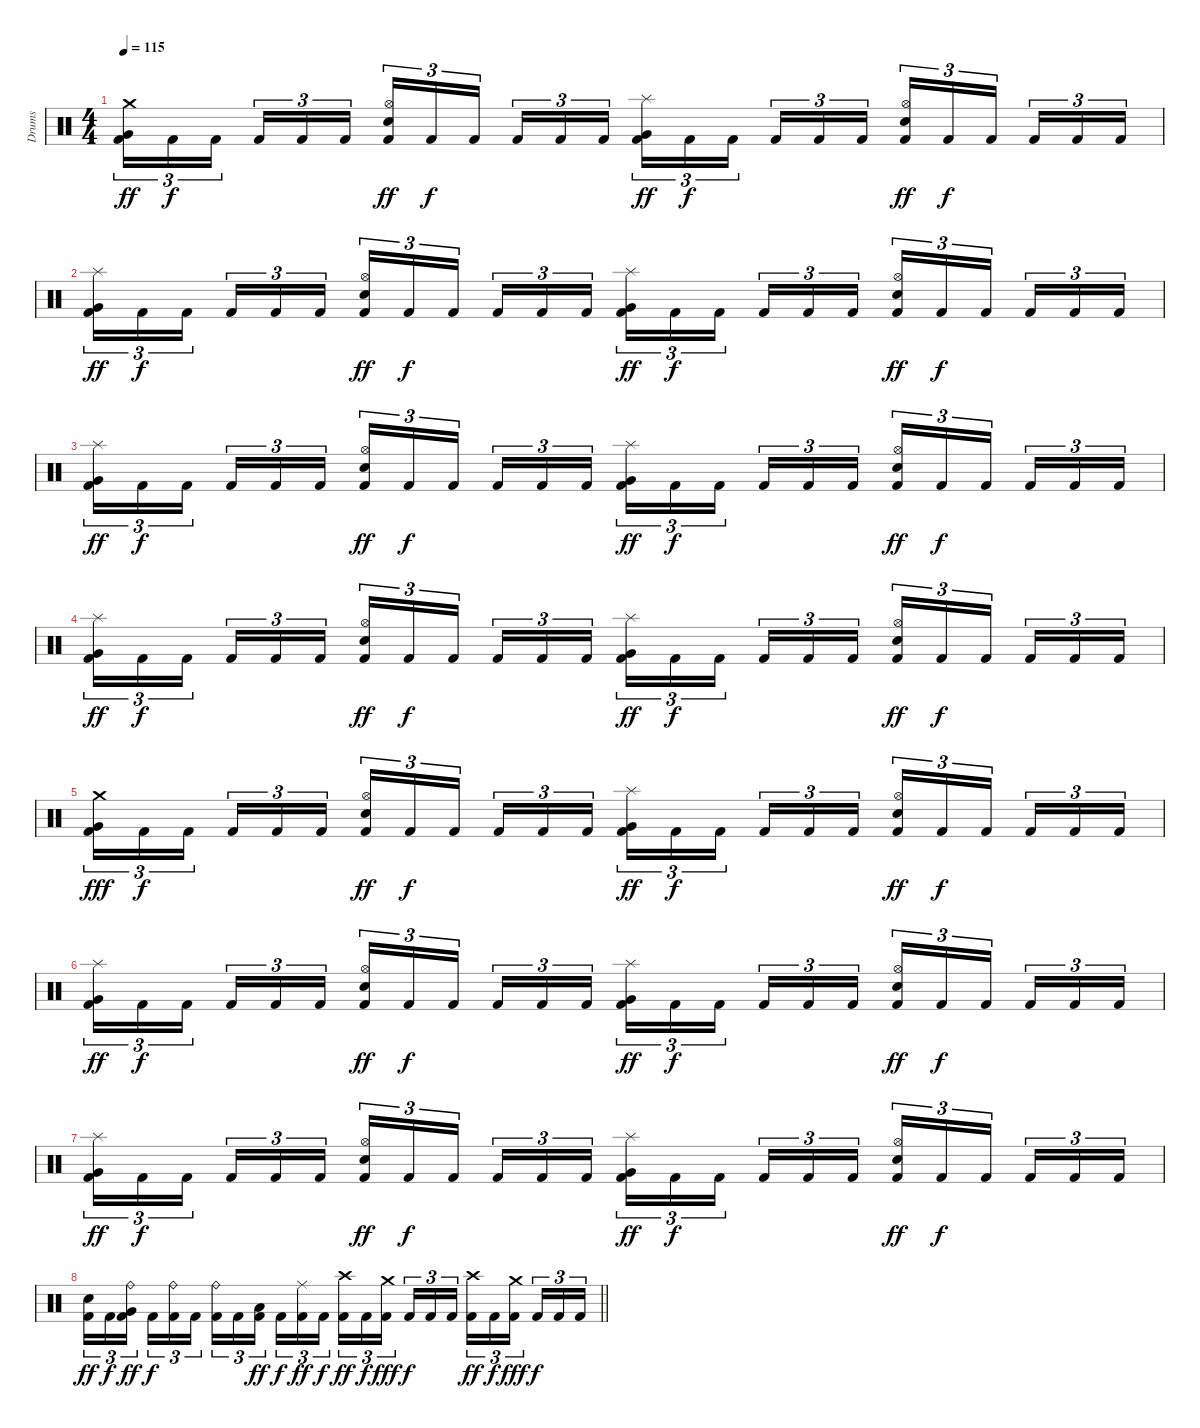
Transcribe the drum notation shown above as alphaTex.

\track ("Drums" "Drums") {instrument percussion}
\staff {score}
\articulation defaults
\ts (4 4)
\tempo 115
\clef neutral
\ks c
("Crash medium (hit)" "Very Low Tom (hit)" "Kick (hit) 2").16{tu (3 2) dy ff} "Kick (hit) 2".16{tu (3 2) dy f} "Kick (hit) 2".16{tu (3 2) beam splitsecondary} "Kick (hit) 2".16{tu (3 2)} "Kick (hit) 2".16{tu (3 2)} "Kick (hit) 2".16{tu (3 2)} ("Hi-Hat (open)" "Snare (hit) 2" "Kick (hit) 2").16{tu (3 2) dy ff} "Kick (hit) 2".16{tu (3 2) dy f} "Kick (hit) 2".16{tu (3 2) beam splitsecondary} "Kick (hit) 2".16{tu (3 2)} "Kick (hit) 2".16{tu (3 2)} "Kick (hit) 2".16{tu (3 2)} ("Splash (hit)" "Very Low Tom (hit)" "Kick (hit) 2").16{tu (3 2) dy ff} "Kick (hit) 2".16{tu (3 2) dy f} "Kick (hit) 2".16{tu (3 2) beam splitsecondary} "Kick (hit) 2".16{tu (3 2)} "Kick (hit) 2".16{tu (3 2)} "Kick (hit) 2".16{tu (3 2)} ("Hi-Hat (open)" "Snare (hit) 2" "Kick (hit) 2").16{tu (3 2) dy ff} "Kick (hit) 2".16{tu (3 2) dy f} "Kick (hit) 2".16{tu (3 2) beam splitsecondary} "Kick (hit) 2".16{tu (3 2)} "Kick (hit) 2".16{tu (3 2)} "Kick (hit) 2".16{tu (3 2)} |
("Splash (hit)" "Very Low Tom (hit)" "Kick (hit) 2").16{tu (3 2) dy ff} "Kick (hit) 2".16{tu (3 2) dy f} "Kick (hit) 2".16{tu (3 2) beam splitsecondary} "Kick (hit) 2".16{tu (3 2)} "Kick (hit) 2".16{tu (3 2)} "Kick (hit) 2".16{tu (3 2)} ("Hi-Hat (open)" "Snare (hit) 2" "Kick (hit) 2").16{tu (3 2) dy ff} "Kick (hit) 2".16{tu (3 2) dy f} "Kick (hit) 2".16{tu (3 2) beam splitsecondary} "Kick (hit) 2".16{tu (3 2)} "Kick (hit) 2".16{tu (3 2)} "Kick (hit) 2".16{tu (3 2)} ("Splash (hit)" "Very Low Tom (hit)" "Kick (hit) 2").16{tu (3 2) dy ff} "Kick (hit) 2".16{tu (3 2) dy f} "Kick (hit) 2".16{tu (3 2) beam splitsecondary} "Kick (hit) 2".16{tu (3 2)} "Kick (hit) 2".16{tu (3 2)} "Kick (hit) 2".16{tu (3 2)} ("Hi-Hat (open)" "Snare (hit) 2" "Kick (hit) 2").16{tu (3 2) dy ff} "Kick (hit) 2".16{tu (3 2) dy f} "Kick (hit) 2".16{tu (3 2) beam splitsecondary} "Kick (hit) 2".16{tu (3 2)} "Kick (hit) 2".16{tu (3 2)} "Kick (hit) 2".16{tu (3 2)} |
("Splash (hit)" "Very Low Tom (hit)" "Kick (hit) 2").16{tu (3 2) dy ff} "Kick (hit) 2".16{tu (3 2) dy f} "Kick (hit) 2".16{tu (3 2) beam splitsecondary} "Kick (hit) 2".16{tu (3 2)} "Kick (hit) 2".16{tu (3 2)} "Kick (hit) 2".16{tu (3 2)} ("Hi-Hat (open)" "Snare (hit) 2" "Kick (hit) 2").16{tu (3 2) dy ff} "Kick (hit) 2".16{tu (3 2) dy f} "Kick (hit) 2".16{tu (3 2) beam splitsecondary} "Kick (hit) 2".16{tu (3 2)} "Kick (hit) 2".16{tu (3 2)} "Kick (hit) 2".16{tu (3 2)} ("Splash (hit)" "Very Low Tom (hit)" "Kick (hit) 2").16{tu (3 2) dy ff} "Kick (hit) 2".16{tu (3 2) dy f} "Kick (hit) 2".16{tu (3 2) beam splitsecondary} "Kick (hit) 2".16{tu (3 2)} "Kick (hit) 2".16{tu (3 2)} "Kick (hit) 2".16{tu (3 2)} ("Hi-Hat (open)" "Snare (hit) 2" "Kick (hit) 2").16{tu (3 2) dy ff} "Kick (hit) 2".16{tu (3 2) dy f} "Kick (hit) 2".16{tu (3 2) beam splitsecondary} "Kick (hit) 2".16{tu (3 2)} "Kick (hit) 2".16{tu (3 2)} "Kick (hit) 2".16{tu (3 2)} |
("Splash (hit)" "Very Low Tom (hit)" "Kick (hit) 2").16{tu (3 2) dy ff} "Kick (hit) 2".16{tu (3 2) dy f} "Kick (hit) 2".16{tu (3 2) beam splitsecondary} "Kick (hit) 2".16{tu (3 2)} "Kick (hit) 2".16{tu (3 2)} "Kick (hit) 2".16{tu (3 2)} ("Hi-Hat (open)" "Snare (hit) 2" "Kick (hit) 2").16{tu (3 2) dy ff} "Kick (hit) 2".16{tu (3 2) dy f} "Kick (hit) 2".16{tu (3 2) beam splitsecondary} "Kick (hit) 2".16{tu (3 2)} "Kick (hit) 2".16{tu (3 2)} "Kick (hit) 2".16{tu (3 2)} ("Splash (hit)" "Very Low Tom (hit)" "Kick (hit) 2").16{tu (3 2) dy ff} "Kick (hit) 2".16{tu (3 2) dy f} "Kick (hit) 2".16{tu (3 2) beam splitsecondary} "Kick (hit) 2".16{tu (3 2)} "Kick (hit) 2".16{tu (3 2)} "Kick (hit) 2".16{tu (3 2)} ("Hi-Hat (open)" "Snare (hit) 2" "Kick (hit) 2").16{tu (3 2) dy ff} "Kick (hit) 2".16{tu (3 2) dy f} "Kick (hit) 2".16{tu (3 2) beam splitsecondary} "Kick (hit) 2".16{tu (3 2)} "Kick (hit) 2".16{tu (3 2)} "Kick (hit) 2".16{tu (3 2)} |
("Crash medium (hit)" "Very Low Tom (hit)" "Kick (hit) 2").16{tu (3 2) dy fff} "Kick (hit) 2".16{tu (3 2) dy f} "Kick (hit) 2".16{tu (3 2) beam splitsecondary} "Kick (hit) 2".16{tu (3 2)} "Kick (hit) 2".16{tu (3 2)} "Kick (hit) 2".16{tu (3 2)} ("Hi-Hat (open)" "Snare (hit) 2" "Kick (hit) 2").16{tu (3 2) dy ff} "Kick (hit) 2".16{tu (3 2) dy f} "Kick (hit) 2".16{tu (3 2) beam splitsecondary} "Kick (hit) 2".16{tu (3 2)} "Kick (hit) 2".16{tu (3 2)} "Kick (hit) 2".16{tu (3 2)} ("Splash (hit)" "Very Low Tom (hit)" "Kick (hit) 2").16{tu (3 2) dy ff} "Kick (hit) 2".16{tu (3 2) dy f} "Kick (hit) 2".16{tu (3 2) beam splitsecondary} "Kick (hit) 2".16{tu (3 2)} "Kick (hit) 2".16{tu (3 2)} "Kick (hit) 2".16{tu (3 2)} ("Hi-Hat (open)" "Snare (hit) 2" "Kick (hit) 2").16{tu (3 2) dy ff} "Kick (hit) 2".16{tu (3 2) dy f} "Kick (hit) 2".16{tu (3 2) beam splitsecondary} "Kick (hit) 2".16{tu (3 2)} "Kick (hit) 2".16{tu (3 2)} "Kick (hit) 2".16{tu (3 2)} |
("Splash (hit)" "Very Low Tom (hit)" "Kick (hit) 2").16{tu (3 2) dy ff} "Kick (hit) 2".16{tu (3 2) dy f} "Kick (hit) 2".16{tu (3 2) beam splitsecondary} "Kick (hit) 2".16{tu (3 2)} "Kick (hit) 2".16{tu (3 2)} "Kick (hit) 2".16{tu (3 2)} ("Hi-Hat (open)" "Snare (hit) 2" "Kick (hit) 2").16{tu (3 2) dy ff} "Kick (hit) 2".16{tu (3 2) dy f} "Kick (hit) 2".16{tu (3 2) beam splitsecondary} "Kick (hit) 2".16{tu (3 2)} "Kick (hit) 2".16{tu (3 2)} "Kick (hit) 2".16{tu (3 2)} ("Splash (hit)" "Very Low Tom (hit)" "Kick (hit) 2").16{tu (3 2) dy ff} "Kick (hit) 2".16{tu (3 2) dy f} "Kick (hit) 2".16{tu (3 2) beam splitsecondary} "Kick (hit) 2".16{tu (3 2)} "Kick (hit) 2".16{tu (3 2)} "Kick (hit) 2".16{tu (3 2)} ("Hi-Hat (open)" "Snare (hit) 2" "Kick (hit) 2").16{tu (3 2) dy ff} "Kick (hit) 2".16{tu (3 2) dy f} "Kick (hit) 2".16{tu (3 2) beam splitsecondary} "Kick (hit) 2".16{tu (3 2)} "Kick (hit) 2".16{tu (3 2)} "Kick (hit) 2".16{tu (3 2)} |
("Splash (hit)" "Very Low Tom (hit)" "Kick (hit) 2").16{tu (3 2) dy ff} "Kick (hit) 2".16{tu (3 2) dy f} "Kick (hit) 2".16{tu (3 2) beam splitsecondary} "Kick (hit) 2".16{tu (3 2)} "Kick (hit) 2".16{tu (3 2)} "Kick (hit) 2".16{tu (3 2)} ("Hi-Hat (open)" "Snare (hit) 2" "Kick (hit) 2").16{tu (3 2) dy ff} "Kick (hit) 2".16{tu (3 2) dy f} "Kick (hit) 2".16{tu (3 2) beam splitsecondary} "Kick (hit) 2".16{tu (3 2)} "Kick (hit) 2".16{tu (3 2)} "Kick (hit) 2".16{tu (3 2)} ("Splash (hit)" "Very Low Tom (hit)" "Kick (hit) 2").16{tu (3 2) dy ff} "Kick (hit) 2".16{tu (3 2) dy f} "Kick (hit) 2".16{tu (3 2) beam splitsecondary} "Kick (hit) 2".16{tu (3 2)} "Kick (hit) 2".16{tu (3 2)} "Kick (hit) 2".16{tu (3 2)} ("Hi-Hat (open)" "Snare (hit) 2" "Kick (hit) 2").16{tu (3 2) dy ff} "Kick (hit) 2".16{tu (3 2) dy f} "Kick (hit) 2".16{tu (3 2) beam splitsecondary} "Kick (hit) 2".16{tu (3 2)} "Kick (hit) 2".16{tu (3 2)} "Kick (hit) 2".16{tu (3 2)} |
\barLineRight lightlight
("Snare (hit) 2" "Kick (hit) 2").16{tu (3 2) dy ff} "Kick (hit) 2".16{tu (3 2) dy f} ("Ride (bell)" "Very Low Tom (hit)" "Kick (hit) 2").16{tu (3 2) dy ff beam splitsecondary} "Kick (hit) 2".16{tu (3 2) dy f} ("Ride (bell)" "Kick (hit) 2").16{tu (3 2)} "Kick (hit) 2".16{tu (3 2)} ("Ride (bell)" "Kick (hit) 2").16{tu (3 2)} "Kick (hit) 2".16{tu (3 2)} ("Low Floor Tom (hit)" "Kick (hit) 2").16{tu (3 2) dy ff beam splitsecondary} "Kick (hit) 2".16{tu (3 2) dy f} ("Ride (middle)" "Kick (hit) 2").16{tu (3 2) dy ff} "Kick (hit) 2".16{tu (3 2) dy f} ("Crash high (hit)" "Kick (hit) 2").16{tu (3 2) dy ff} "Kick (hit) 2".16{tu (3 2) dy f} ("Crash medium (hit)" "Kick (hit) 2").16{tu (3 2) dy fff beam splitsecondary} "Kick (hit) 2".16{tu (3 2) dy f} "Kick (hit) 2".16{tu (3 2)} "Kick (hit) 2".16{tu (3 2)} ("Crash high (hit)" "Kick (hit) 2").16{tu (3 2) dy ff} "Kick (hit) 2".16{tu (3 2) dy f} ("Crash medium (hit)" "Kick (hit) 2").16{tu (3 2) dy fff beam splitsecondary} "Kick (hit) 2".16{tu (3 2) dy f} "Kick (hit) 2".16{tu (3 2)} "Kick (hit) 2".16{tu (3 2)}
